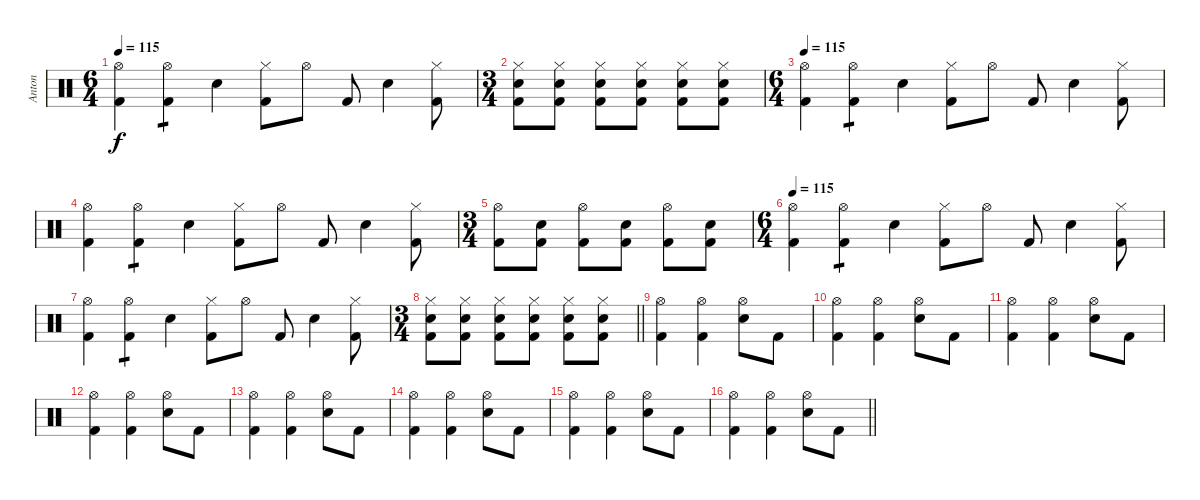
\track ("Anton" "Anton") {instrument percussion}
\staff {score}
\articulation defaults
\ts (6 4)
\tempo 115
\clef neutral
\ks c
("Hi-Hat (open)" "Kick (hit) 2").4{dy f} ("Hi-Hat (open)" "Kick (hit) 2").4{tp 1} "Electric Snare (hit)".4 ("Hi-Hat (closed)" "Kick (hit) 2").8 "Hi-Hat (open)".8 "Kick (hit) 2".8 "Electric Snare (hit)".4 ("Hi-Hat (closed)" "Kick (hit) 2").8 |
\ts (3 4)
("Hi-Hat (closed)" "Electric Snare (hit)" "Kick (hit) 2").8 ("Hi-Hat (closed)" "Electric Snare (hit)" "Kick (hit) 2").8 ("Hi-Hat (closed)" "Electric Snare (hit)" "Kick (hit) 2").8 ("Hi-Hat (closed)" "Electric Snare (hit)" "Kick (hit) 2").8 ("Hi-Hat (closed)" "Electric Snare (hit)" "Kick (hit) 2").8 ("Hi-Hat (closed)" "Electric Snare (hit)" "Kick (hit) 2").8 |
\ts (6 4)
\tempo 115
("Hi-Hat (open)" "Kick (hit) 2").4 ("Hi-Hat (open)" "Kick (hit) 2").4{tp 1} "Electric Snare (hit)".4 ("Hi-Hat (closed)" "Kick (hit) 2").8 "Hi-Hat (open)".8 "Kick (hit) 2".8 "Electric Snare (hit)".4 ("Hi-Hat (closed)" "Kick (hit) 2").8 |
("Hi-Hat (open)" "Kick (hit) 2").4 ("Hi-Hat (open)" "Kick (hit) 2").4{tp 1} "Electric Snare (hit)".4 ("Hi-Hat (closed)" "Kick (hit) 2").8 "Hi-Hat (open)".8 "Kick (hit) 2".8 "Electric Snare (hit)".4 ("Hi-Hat (closed)" "Kick (hit) 2").8 |
\ts (3 4)
("Hi-Hat (open)" "Kick (hit) 2").8 ("Electric Snare (hit)" "Kick (hit) 2").8 ("Hi-Hat (open)" "Kick (hit) 2").8 ("Electric Snare (hit)" "Kick (hit) 2").8 ("Hi-Hat (open)" "Kick (hit) 2").8 ("Electric Snare (hit)" "Kick (hit) 2").8 |
\ts (6 4)
\tempo 115
("Hi-Hat (open)" "Kick (hit) 2").4 ("Hi-Hat (open)" "Kick (hit) 2").4{tp 1} "Electric Snare (hit)".4 ("Hi-Hat (closed)" "Kick (hit) 2").8 "Hi-Hat (open)".8 "Kick (hit) 2".8 "Electric Snare (hit)".4 ("Hi-Hat (closed)" "Kick (hit) 2").8 |
("Hi-Hat (open)" "Kick (hit) 2").4 ("Hi-Hat (open)" "Kick (hit) 2").4{tp 1} "Electric Snare (hit)".4 ("Hi-Hat (closed)" "Kick (hit) 2").8 "Hi-Hat (open)".8 "Kick (hit) 2".8 "Electric Snare (hit)".4 ("Hi-Hat (closed)" "Kick (hit) 2").8 |
\ts (3 4)
\barLineRight lightlight
("Hi-Hat (closed)" "Electric Snare (hit)" "Kick (hit) 2").8 ("Hi-Hat (closed)" "Electric Snare (hit)" "Kick (hit) 2").8 ("Hi-Hat (closed)" "Electric Snare (hit)" "Kick (hit) 2").8 ("Hi-Hat (closed)" "Electric Snare (hit)" "Kick (hit) 2").8 ("Hi-Hat (closed)" "Electric Snare (hit)" "Kick (hit) 2").8 ("Hi-Hat (closed)" "Electric Snare (hit)" "Kick (hit) 2").8 |
("Hi-Hat (open)" "Kick (hit) 2").4 ("Hi-Hat (open)" "Kick (hit) 2").4 ("Hi-Hat (open)" "Electric Snare (hit)").8 "Kick (hit) 2".8 |
("Hi-Hat (open)" "Kick (hit) 2").4 ("Hi-Hat (open)" "Kick (hit) 2").4 ("Hi-Hat (open)" "Electric Snare (hit)").8 "Kick (hit) 2".8 |
("Hi-Hat (open)" "Kick (hit) 2").4 ("Hi-Hat (open)" "Kick (hit) 2").4 ("Hi-Hat (open)" "Electric Snare (hit)").8 "Kick (hit) 2".8 |
("Hi-Hat (open)" "Kick (hit) 2").4 ("Hi-Hat (open)" "Kick (hit) 2").4 ("Hi-Hat (open)" "Electric Snare (hit)").8 "Kick (hit) 2".8 |
("Hi-Hat (open)" "Kick (hit) 2").4 ("Hi-Hat (open)" "Kick (hit) 2").4 ("Hi-Hat (open)" "Electric Snare (hit)").8 "Kick (hit) 2".8 |
("Hi-Hat (open)" "Kick (hit) 2").4 ("Hi-Hat (open)" "Kick (hit) 2").4 ("Hi-Hat (open)" "Electric Snare (hit)").8 "Kick (hit) 2".8 |
("Hi-Hat (open)" "Kick (hit) 2").4 ("Hi-Hat (open)" "Kick (hit) 2").4 ("Hi-Hat (open)" "Electric Snare (hit)").8 "Kick (hit) 2".8 |
\barLineRight lightlight
("Hi-Hat (open)" "Kick (hit) 2").4 ("Hi-Hat (open)" "Kick (hit) 2").4 ("Hi-Hat (open)" "Electric Snare (hit)").8 "Kick (hit) 2".8
